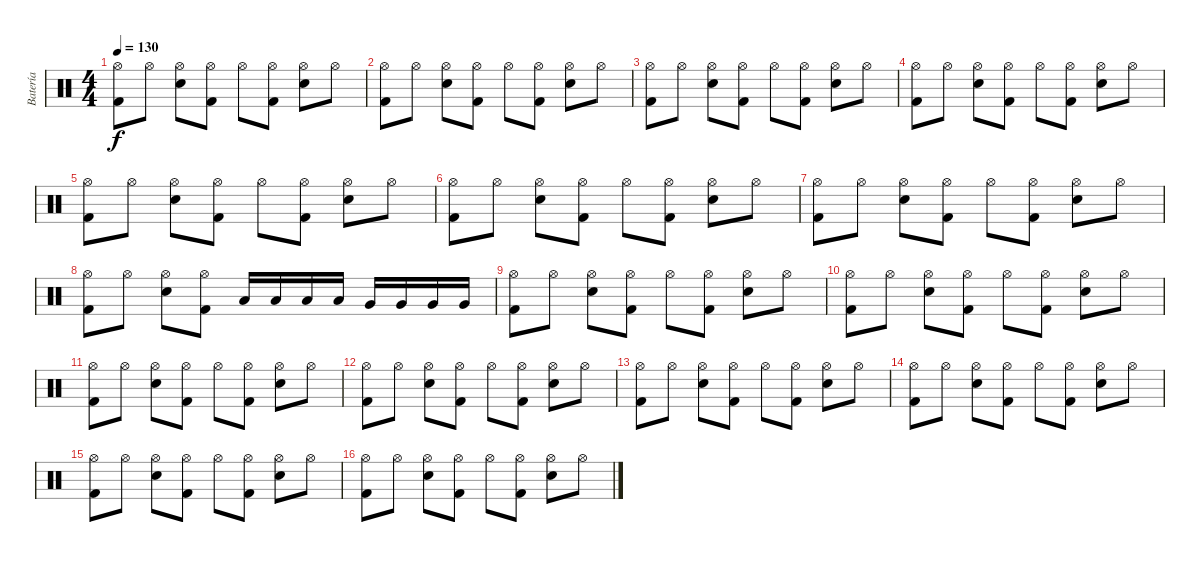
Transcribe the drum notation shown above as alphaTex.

\track ("Batería" "Batería") {instrument percussion}
\staff {score}
\articulation defaults
\ts (4 4)
\tempo 130
\clef neutral
\ks c
("Hi-Hat (open)" "Kick (hit) 2").8{dy f} "Hi-Hat (open)".8 ("Hi-Hat (open)" "Snare (hit) 2").8 ("Hi-Hat (open)" "Kick (hit) 2").8 "Hi-Hat (open)".8 ("Hi-Hat (open)" "Kick (hit) 2").8 ("Hi-Hat (open)" "Snare (hit) 2").8 "Hi-Hat (open)".8 |
("Hi-Hat (open)" "Kick (hit) 2").8 "Hi-Hat (open)".8 ("Hi-Hat (open)" "Snare (hit) 2").8 ("Hi-Hat (open)" "Kick (hit) 2").8 "Hi-Hat (open)".8 ("Hi-Hat (open)" "Kick (hit) 2").8 ("Hi-Hat (open)" "Snare (hit) 2").8 "Hi-Hat (open)".8 |
("Hi-Hat (open)" "Kick (hit) 2").8 "Hi-Hat (open)".8 ("Hi-Hat (open)" "Snare (hit) 2").8 ("Hi-Hat (open)" "Kick (hit) 2").8 "Hi-Hat (open)".8 ("Hi-Hat (open)" "Kick (hit) 2").8 ("Hi-Hat (open)" "Snare (hit) 2").8 "Hi-Hat (open)".8 |
("Hi-Hat (open)" "Kick (hit) 2").8 "Hi-Hat (open)".8 ("Hi-Hat (open)" "Snare (hit) 2").8 ("Hi-Hat (open)" "Kick (hit) 2").8 "Hi-Hat (open)".8 ("Hi-Hat (open)" "Kick (hit) 2").8 ("Hi-Hat (open)" "Snare (hit) 2").8 "Hi-Hat (open)".8 |
("Hi-Hat (open)" "Kick (hit) 2").8 "Hi-Hat (open)".8 ("Hi-Hat (open)" "Snare (hit) 2").8 ("Hi-Hat (open)" "Kick (hit) 2").8 "Hi-Hat (open)".8 ("Hi-Hat (open)" "Kick (hit) 2").8 ("Hi-Hat (open)" "Snare (hit) 2").8 "Hi-Hat (open)".8 |
("Hi-Hat (open)" "Kick (hit) 2").8 "Hi-Hat (open)".8 ("Hi-Hat (open)" "Snare (hit) 2").8 ("Hi-Hat (open)" "Kick (hit) 2").8 "Hi-Hat (open)".8 ("Hi-Hat (open)" "Kick (hit) 2").8 ("Hi-Hat (open)" "Snare (hit) 2").8 "Hi-Hat (open)".8 |
("Hi-Hat (open)" "Kick (hit) 2").8 "Hi-Hat (open)".8 ("Hi-Hat (open)" "Snare (hit) 2").8 ("Hi-Hat (open)" "Kick (hit) 2").8 "Hi-Hat (open)".8 ("Hi-Hat (open)" "Kick (hit) 2").8 ("Hi-Hat (open)" "Snare (hit) 2").8 "Hi-Hat (open)".8 |
("Hi-Hat (open)" "Kick (hit) 2").8 "Hi-Hat (open)".8 ("Hi-Hat (open)" "Snare (hit) 2").8 ("Hi-Hat (open)" "Kick (hit) 2").8 "Low Tom (hit)".16 "Low Tom (hit)".16 "Low Tom (hit)".16 "Low Tom (hit)".16 "Very Low Tom (hit)".16 "Very Low Tom (hit)".16 "Very Low Tom (hit)".16 "Very Low Tom (hit)".16 |
("Hi-Hat (open)" "Kick (hit) 2").8 "Hi-Hat (open)".8 ("Hi-Hat (open)" "Snare (hit) 2").8 ("Hi-Hat (open)" "Kick (hit) 2").8 "Hi-Hat (open)".8 ("Hi-Hat (open)" "Kick (hit) 2").8 ("Hi-Hat (open)" "Snare (hit) 2").8 "Hi-Hat (open)".8 |
("Hi-Hat (open)" "Kick (hit) 2").8 "Hi-Hat (open)".8 ("Hi-Hat (open)" "Snare (hit) 2").8 ("Hi-Hat (open)" "Kick (hit) 2").8 "Hi-Hat (open)".8 ("Hi-Hat (open)" "Kick (hit) 2").8 ("Hi-Hat (open)" "Snare (hit) 2").8 "Hi-Hat (open)".8 |
("Hi-Hat (open)" "Kick (hit) 2").8 "Hi-Hat (open)".8 ("Hi-Hat (open)" "Snare (hit) 2").8 ("Hi-Hat (open)" "Kick (hit) 2").8 "Hi-Hat (open)".8 ("Hi-Hat (open)" "Kick (hit) 2").8 ("Hi-Hat (open)" "Snare (hit) 2").8 "Hi-Hat (open)".8 |
("Hi-Hat (open)" "Kick (hit) 2").8 "Hi-Hat (open)".8 ("Hi-Hat (open)" "Snare (hit) 2").8 ("Hi-Hat (open)" "Kick (hit) 2").8 "Hi-Hat (open)".8 ("Hi-Hat (open)" "Kick (hit) 2").8 ("Hi-Hat (open)" "Snare (hit) 2").8 "Hi-Hat (open)".8 |
("Hi-Hat (open)" "Kick (hit) 2").8 "Hi-Hat (open)".8 ("Hi-Hat (open)" "Snare (hit) 2").8 ("Hi-Hat (open)" "Kick (hit) 2").8 "Hi-Hat (open)".8 ("Hi-Hat (open)" "Kick (hit) 2").8 ("Hi-Hat (open)" "Snare (hit) 2").8 "Hi-Hat (open)".8 |
("Hi-Hat (open)" "Kick (hit) 2").8 "Hi-Hat (open)".8 ("Hi-Hat (open)" "Snare (hit) 2").8 ("Hi-Hat (open)" "Kick (hit) 2").8 "Hi-Hat (open)".8 ("Hi-Hat (open)" "Kick (hit) 2").8 ("Hi-Hat (open)" "Snare (hit) 2").8 "Hi-Hat (open)".8 |
("Hi-Hat (open)" "Kick (hit) 2").8 "Hi-Hat (open)".8 ("Hi-Hat (open)" "Snare (hit) 2").8 ("Hi-Hat (open)" "Kick (hit) 2").8 "Hi-Hat (open)".8 ("Hi-Hat (open)" "Kick (hit) 2").8 ("Hi-Hat (open)" "Snare (hit) 2").8 "Hi-Hat (open)".8 |
("Hi-Hat (open)" "Kick (hit) 2").8 "Hi-Hat (open)".8 ("Hi-Hat (open)" "Snare (hit) 2").8 ("Hi-Hat (open)" "Kick (hit) 2").8 "Hi-Hat (open)".8 ("Hi-Hat (open)" "Kick (hit) 2").8 ("Hi-Hat (open)" "Snare (hit) 2").8 "Hi-Hat (open)".8
